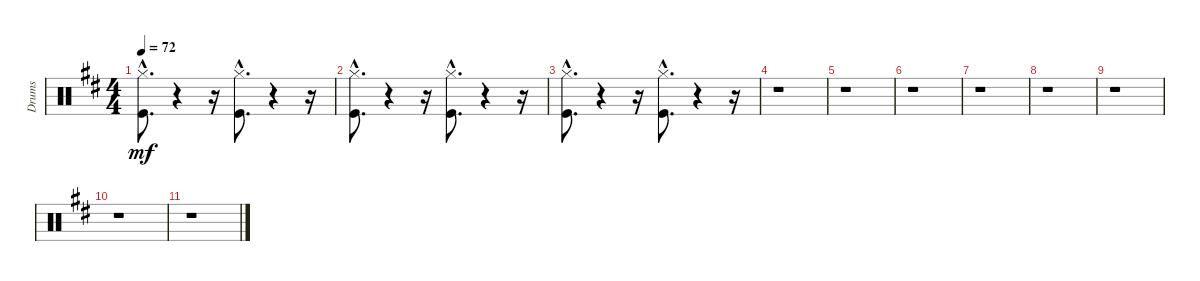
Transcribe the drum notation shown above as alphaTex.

\track ("Drums" "Drums") {instrument percussion}
\staff {score}
\articulation defaults
\ts (4 4)
\tempo 72
\clef neutral
\ks d
("Kick (hit)"{hac} "Hi-Hat (closed)"{hac}).8{d dy mf} r.4 r.16 ("Kick (hit)"{hac} "Hi-Hat (closed)"{hac}).8{d} r.4 r.16 |
("Kick (hit)"{hac} "Hi-Hat (closed)"{hac}).8{d} r.4 r.16 ("Kick (hit)"{hac} "Hi-Hat (closed)"{hac}).8{d} r.4 r.16 |
("Kick (hit)"{hac} "Hi-Hat (closed)"{hac}).8{d} r.4 r.16 ("Kick (hit)"{hac} "Hi-Hat (closed)"{hac}).8{d} r.4 r.16 |
r.1 |
r.1 |
r.1 |
r.1 |
r.1 |
r.1 |
r.1 |
r.1
